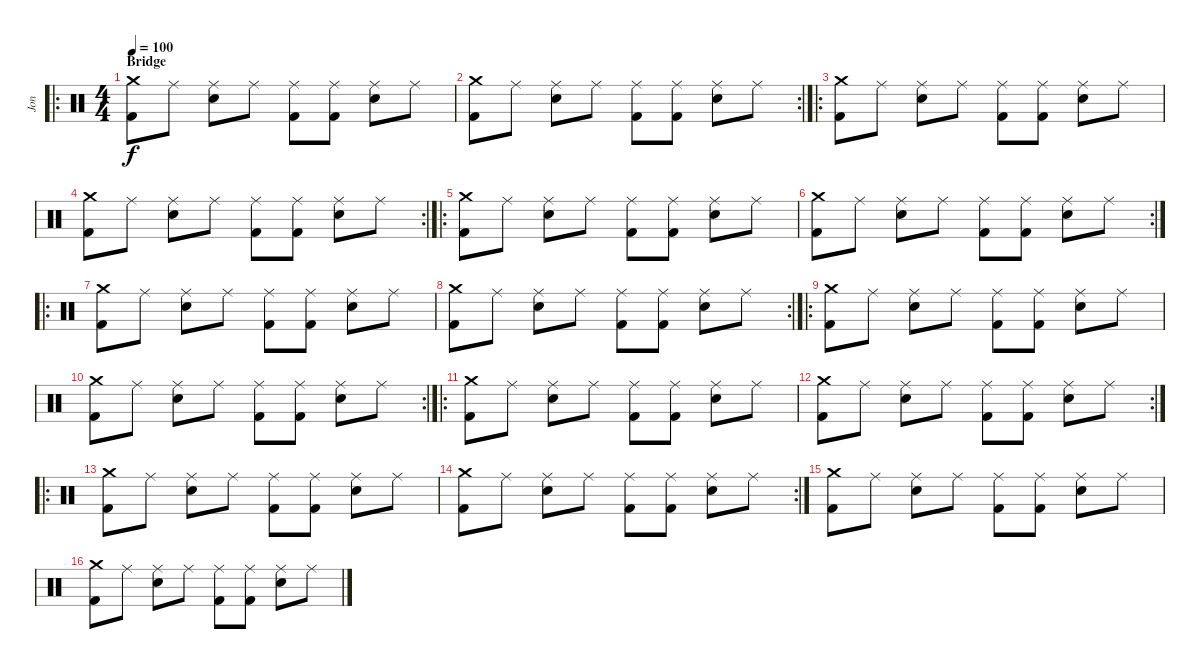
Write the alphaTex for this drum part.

\track ("Jon" "Jon") {instrument percussion}
\staff {score}
\articulation defaults
\ro
\ts (4 4)
\section ("" "Bridge")
\tempo 100
\clef neutral
\ks c
("Crash medium (hit)" "Kick (hit) 2").8{dy f} "Ride (middle)".8 ("Ride (middle)" "Snare (hit) 2").8 "Ride (middle)".8 ("Ride (middle)" "Kick (hit) 2").8 ("Ride (middle)" "Kick (hit) 2").8 ("Ride (middle)" "Snare (hit) 2").8 "Ride (middle)".8 |
\rc 2
("Crash medium (hit)" "Kick (hit) 2").8 "Ride (middle)".8 ("Ride (middle)" "Snare (hit) 2").8 "Ride (middle)".8 ("Ride (middle)" "Kick (hit) 2").8 ("Ride (middle)" "Kick (hit) 2").8 ("Ride (middle)" "Snare (hit) 2").8 "Ride (middle)".8 |
\ro
("Crash medium (hit)" "Kick (hit) 2").8 "Ride (middle)".8 ("Ride (middle)" "Snare (hit) 2").8 "Ride (middle)".8 ("Ride (middle)" "Kick (hit) 2").8 ("Ride (middle)" "Kick (hit) 2").8 ("Ride (middle)" "Snare (hit) 2").8 "Ride (middle)".8 |
\rc 2
("Crash medium (hit)" "Kick (hit) 2").8 "Ride (middle)".8 ("Ride (middle)" "Snare (hit) 2").8 "Ride (middle)".8 ("Ride (middle)" "Kick (hit) 2").8 ("Ride (middle)" "Kick (hit) 2").8 ("Ride (middle)" "Snare (hit) 2").8 "Ride (middle)".8 |
\ro
("Crash medium (hit)" "Kick (hit) 2").8 "Ride (middle)".8 ("Ride (middle)" "Snare (hit) 2").8 "Ride (middle)".8 ("Ride (middle)" "Kick (hit) 2").8 ("Ride (middle)" "Kick (hit) 2").8 ("Ride (middle)" "Snare (hit) 2").8 "Ride (middle)".8 |
\rc 2
("Crash medium (hit)" "Kick (hit) 2").8 "Ride (middle)".8 ("Ride (middle)" "Snare (hit) 2").8 "Ride (middle)".8 ("Ride (middle)" "Kick (hit) 2").8 ("Ride (middle)" "Kick (hit) 2").8 ("Ride (middle)" "Snare (hit) 2").8 "Ride (middle)".8 |
\ro
("Crash medium (hit)" "Kick (hit) 2").8 "Ride (middle)".8 ("Ride (middle)" "Snare (hit) 2").8 "Ride (middle)".8 ("Ride (middle)" "Kick (hit) 2").8 ("Ride (middle)" "Kick (hit) 2").8 ("Ride (middle)" "Snare (hit) 2").8 "Ride (middle)".8 |
\rc 2
("Crash medium (hit)" "Kick (hit) 2").8 "Ride (middle)".8 ("Ride (middle)" "Snare (hit) 2").8 "Ride (middle)".8 ("Ride (middle)" "Kick (hit) 2").8 ("Ride (middle)" "Kick (hit) 2").8 ("Ride (middle)" "Snare (hit) 2").8 "Ride (middle)".8 |
\ro
("Crash medium (hit)" "Kick (hit) 2").8 "Ride (middle)".8 ("Ride (middle)" "Snare (hit) 2").8 "Ride (middle)".8 ("Ride (middle)" "Kick (hit) 2").8 ("Ride (middle)" "Kick (hit) 2").8 ("Ride (middle)" "Snare (hit) 2").8 "Ride (middle)".8 |
\rc 2
("Crash medium (hit)" "Kick (hit) 2").8 "Ride (middle)".8 ("Ride (middle)" "Snare (hit) 2").8 "Ride (middle)".8 ("Ride (middle)" "Kick (hit) 2").8 ("Ride (middle)" "Kick (hit) 2").8 ("Ride (middle)" "Snare (hit) 2").8 "Ride (middle)".8 |
\ro
("Crash medium (hit)" "Kick (hit) 2").8 "Ride (middle)".8 ("Ride (middle)" "Snare (hit) 2").8 "Ride (middle)".8 ("Ride (middle)" "Kick (hit) 2").8 ("Ride (middle)" "Kick (hit) 2").8 ("Ride (middle)" "Snare (hit) 2").8 "Ride (middle)".8 |
\rc 2
("Crash medium (hit)" "Kick (hit) 2").8 "Ride (middle)".8 ("Ride (middle)" "Snare (hit) 2").8 "Ride (middle)".8 ("Ride (middle)" "Kick (hit) 2").8 ("Ride (middle)" "Kick (hit) 2").8 ("Ride (middle)" "Snare (hit) 2").8 "Ride (middle)".8 |
\ro
("Crash medium (hit)" "Kick (hit) 2").8 "Ride (middle)".8 ("Ride (middle)" "Snare (hit) 2").8 "Ride (middle)".8 ("Ride (middle)" "Kick (hit) 2").8 ("Ride (middle)" "Kick (hit) 2").8 ("Ride (middle)" "Snare (hit) 2").8 "Ride (middle)".8 |
\rc 2
("Crash medium (hit)" "Kick (hit) 2").8 "Ride (middle)".8 ("Ride (middle)" "Snare (hit) 2").8 "Ride (middle)".8 ("Ride (middle)" "Kick (hit) 2").8 ("Ride (middle)" "Kick (hit) 2").8 ("Ride (middle)" "Snare (hit) 2").8 "Ride (middle)".8 |
("Crash medium (hit)" "Kick (hit) 2").8 "Ride (middle)".8 ("Ride (middle)" "Snare (hit) 2").8 "Ride (middle)".8 ("Ride (middle)" "Kick (hit) 2").8 ("Ride (middle)" "Kick (hit) 2").8 ("Ride (middle)" "Snare (hit) 2").8 "Ride (middle)".8 |
("Crash medium (hit)" "Kick (hit) 2").8 "Ride (middle)".8 ("Ride (middle)" "Snare (hit) 2").8 "Ride (middle)".8 ("Ride (middle)" "Kick (hit) 2").8 ("Ride (middle)" "Kick (hit) 2").8 ("Ride (middle)" "Snare (hit) 2").8 "Ride (middle)".8
